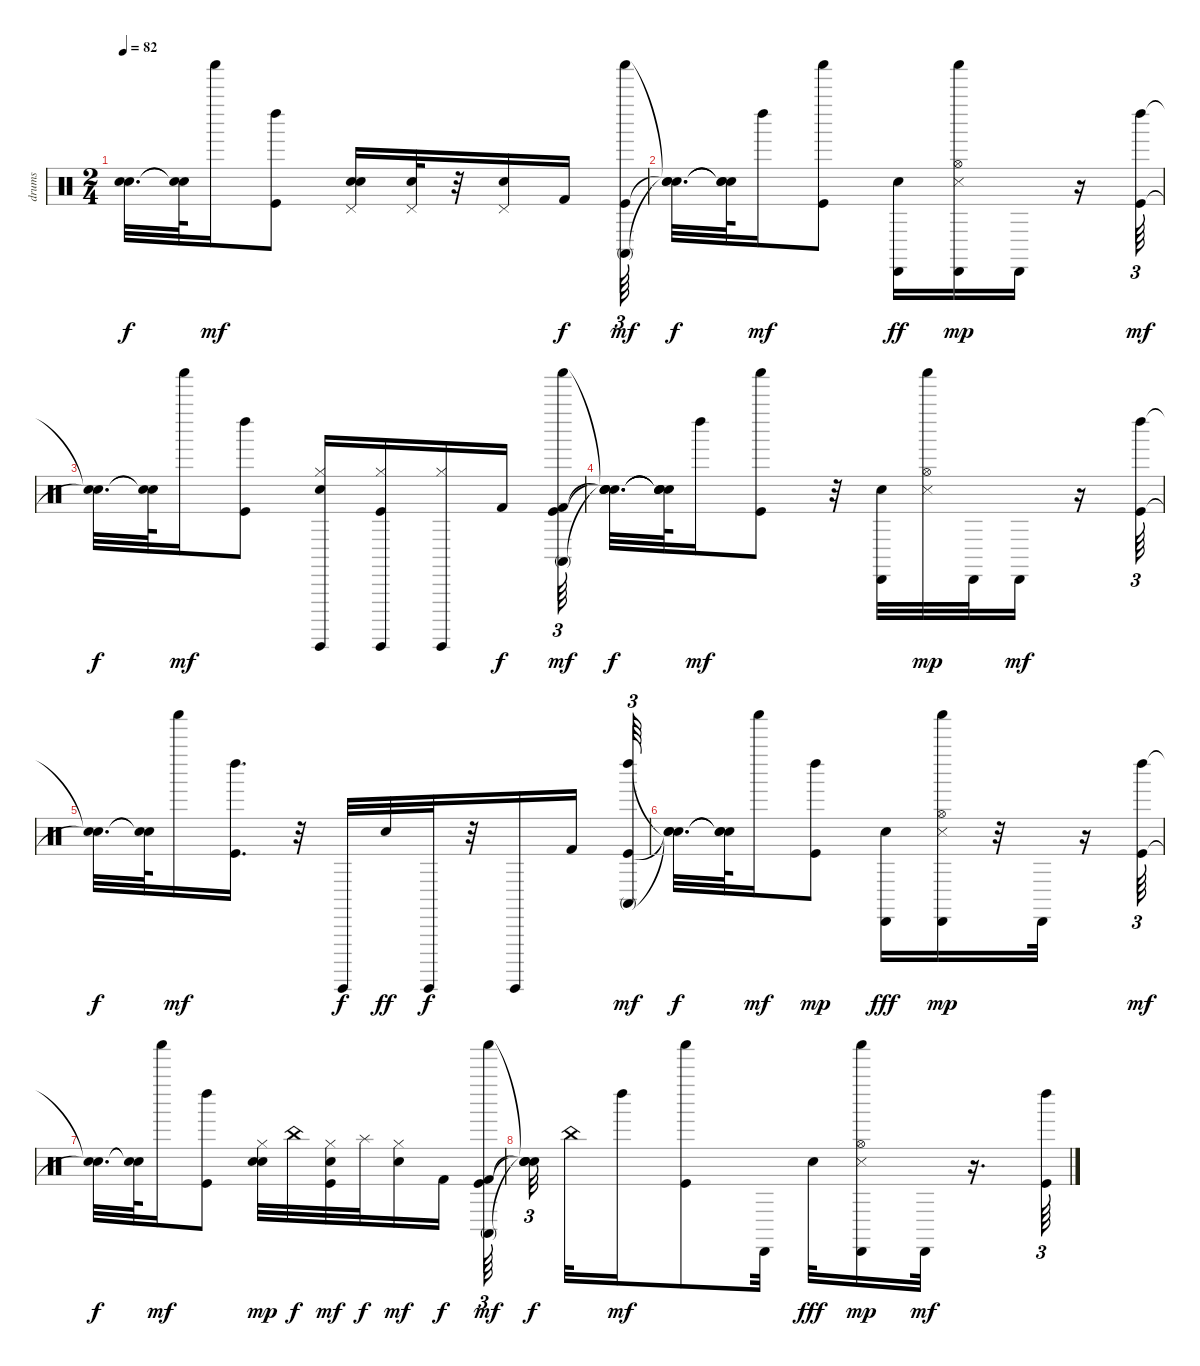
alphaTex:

\track ("drums" "drums") {instrument percussion}
\staff {score}
\articulation defaults
\ts (2 4)
\tempo 82
\clef neutral
\ks c
("Snare (hit)"{t} "Snare (hit)"{t}).32{d dy f} ("Snare (hit)"{t} "Snare (hit)"{t}).64 "Shaker (hit)".16{dy mf} ("Kick (hit)" "Left Maraca (hit)").8 ("Electric Snare (hit)" "Hand Clap (hit)" "Pedal Hi-Hat (hit)").16 ("Pedal Hi-Hat (hit)" "Hand Clap (hit)").32 r.32 ("Pedal Hi-Hat (hit)" "Hand Clap (hit)").16 "Kick (hit) 2".16{dy f} ("Kick (hit)" "Shaker (hit)" "Conga high (mute)").64{tu (3 2) dy mf} |
("Snare (hit)"{t} "Snare (hit)"{t} "Snare (hit)"{t}).32{d dy f} ("Snare (hit)"{t} "Snare (hit)"{t} "Snare (hit)"{t}).64 "Left Maraca (hit)".16{dy mf} ("Kick (hit)" "Shaker (hit)").8 ("Cabasa (hit)" "Electric Snare (hit)").16{dy ff} ("Cabasa (hit)" "Snare (side stick) 3" "Shaker (hit)" "Hi-Hat (open)").16{dy mp} "Cabasa (hit)".16 r.16 ("Kick (hit)" "Left Maraca (hit)").64{tu (3 2) dy mf} |
("Snare (hit)"{t} "Snare (hit)"{t}).32{d dy f} ("Snare (hit)"{t} "Snare (hit)"{t}).64 "Shaker (hit)".16{dy mf} ("Kick (hit)" "Left Maraca (hit)").8 ("Electric Snare (hit)" "Hi-Hat (closed)" "Guiro (hit)").16 ("Kick (hit)" "Guiro (hit)" "Hi-Hat (closed)").16 ("Guiro (hit)" "Hi-Hat (closed)").16 "Kick (hit) 2".16{dy f} ("Kick (hit) 2" "Kick (hit)" "Shaker (hit)" "Conga high (mute)").64{tu (3 2) dy mf} |
("Snare (hit)"{t} "Snare (hit)"{t} "Snare (hit)"{t} "Snare (hit)"{t}).32{d dy f} ("Snare (hit)"{t} "Snare (hit)"{t} "Snare (hit)"{t} "Snare (hit)"{t}).64 "Left Maraca (hit)".16{dy mf} ("Kick (hit)" "Shaker (hit)").8 r.32 ("Electric Snare (hit)" "Cabasa (hit)").32 ("Snare (side stick) 3" "Shaker (hit)" "Hi-Hat (open)").32{dy mp} "Cabasa (hit)".32 "Cabasa (hit)".16{dy mf} r.16 ("Kick (hit)" "Left Maraca (hit)").64{tu (3 2)} |
("Snare (hit)"{t} "Snare (hit)"{t}).32{d dy f} ("Snare (hit)"{t} "Snare (hit)"{t}).64 "Shaker (hit)".16{dy mf} ("Kick (hit)" "Left Maraca (hit)").16{d} r.32 "Guiro (hit)".32{dy f} "Electric Snare (hit)".32{dy ff} "Guiro (hit)".32{dy f} r.32 "Guiro (hit)".16 "Kick (hit) 2".16 ("Kick (hit)" "Left Maraca (hit)" "Conga high (mute)").64{tu (3 2) dy mf} |
("Snare (hit)"{t} "Snare (hit)"{t} "Snare (hit)"{t}).32{d dy f} ("Snare (hit)"{t} "Snare (hit)"{t} "Snare (hit)"{t}).64 "Shaker (hit)".16{dy mf} ("Kick (hit)" "Left Maraca (hit)").8{dy mp} ("Cabasa (hit)" "Electric Snare (hit)").16{dy fff} ("Snare (side stick) 3" "Shaker (hit)" "Hi-Hat (open)" "Cabasa (hit)").16{dy mp} r.32 "Cabasa (hit)".32 r.16 ("Kick (hit)" "Left Maraca (hit)").64{tu (3 2) dy mf} |
("Snare (hit)"{t} "Snare (hit)"{t}).32{d dy f} ("Snare (hit)"{t} "Snare (hit)"{t}).64 "Shaker (hit)".16{dy mf} ("Kick (hit)" "Left Maraca (hit)").8 ("Electric Snare (hit)" "Hand Clap (hit)" "Hi-Hat (closed)").32{dy mp} "China (hit)".32{dy f} ("Kick (hit)" "Hi-Hat (closed)" "Hand Clap (hit)").32{dy mf} "Splash (hit)".32{dy f} ("Hi-Hat (closed)" "Hand Clap (hit)").16{dy mf} "Kick (hit) 2".16{dy f} ("Kick (hit) 2" "Kick (hit)" "Shaker (hit)" "Conga high (mute)").64{tu (3 2) dy mf} |
("Snare (hit)"{t} "Snare (hit)"{t} "Snare (hit)"{t} "Snare (hit)"{t}).32{tu (3 2) dy f beam splitsecondary} "China (hit)".32 "Left Maraca (hit)".16{dy mf} ("Kick (hit)" "Shaker (hit)").8 "Cabasa (hit)".32 "Electric Snare (hit)".32{dy fff} ("Cabasa (hit)" "Hi-Hat (open)" "Shaker (hit)" "Snare (side stick) 3").16{dy mp} "Cabasa (hit)".32{dy mf} r.16{d} ("Kick (hit)" "Left Maraca (hit)").64{tu (3 2)}
